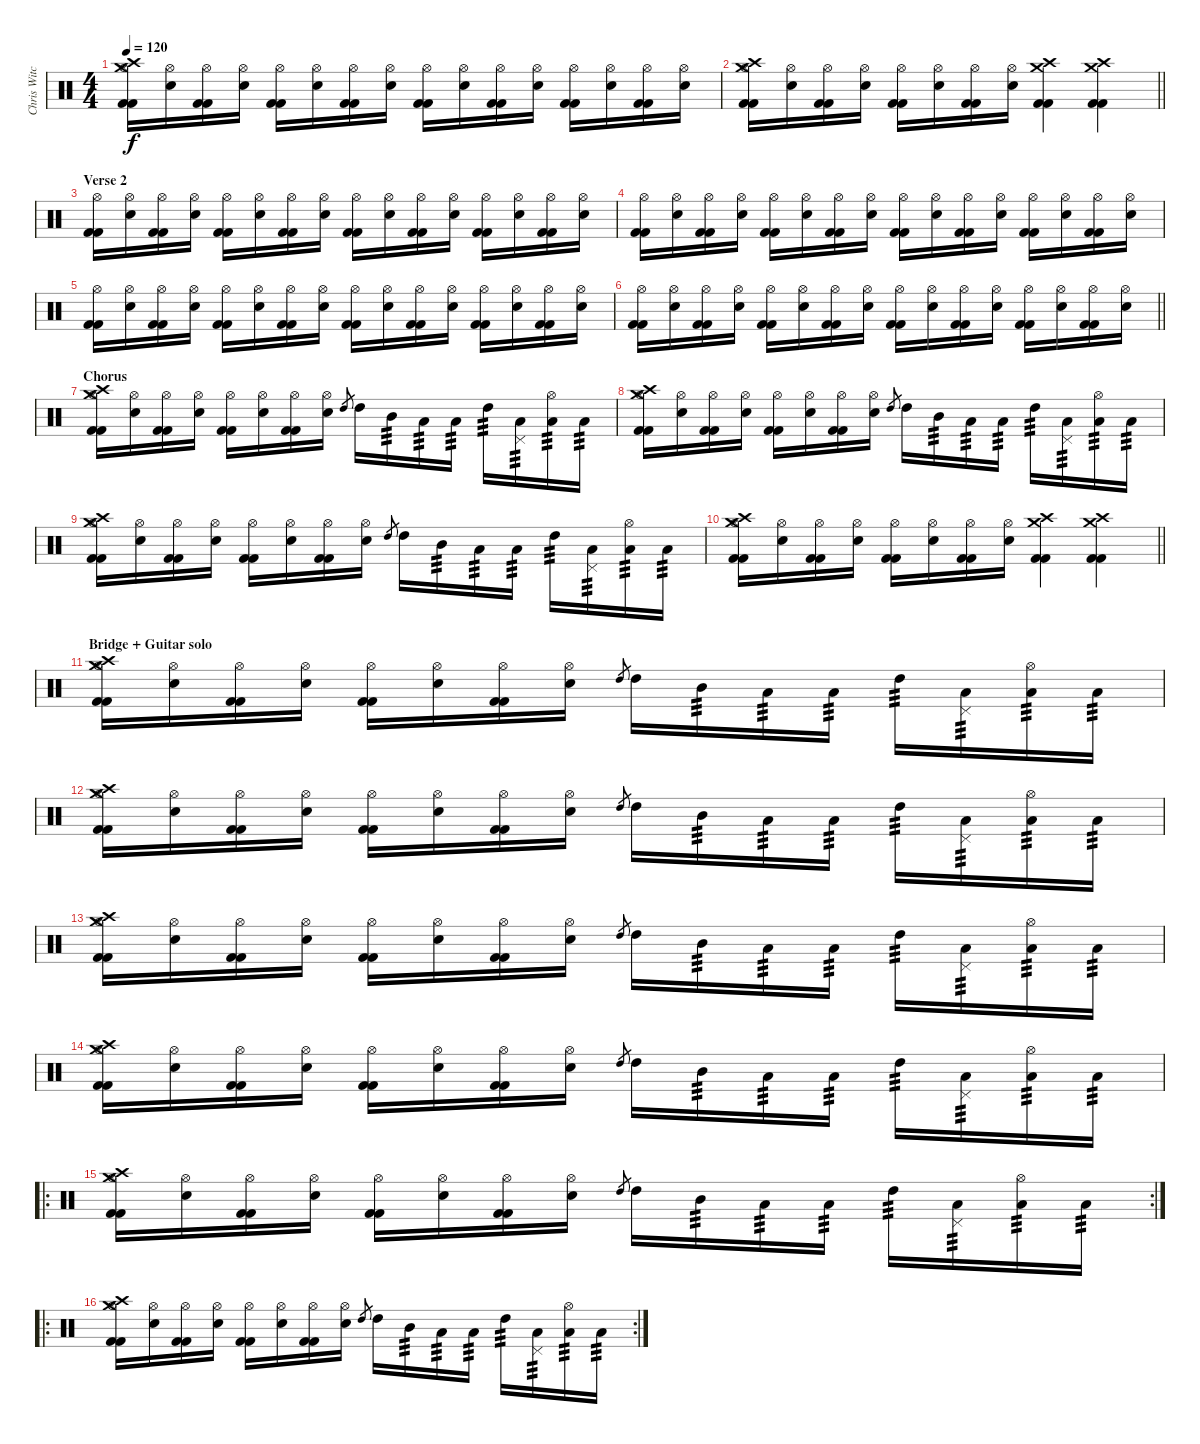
\track ("Chris Witchhunter (R.I.P.)" "Chris Witc") {instrument percussion}
\staff {score}
\articulation defaults
\ts (4 4)
\tempo 120
\clef neutral
\ks c
("Crash medium (hit)" "Crash high (hit)" "Hi-Hat (open)" "Kick (hit) 2" "Kick (hit) 2").16{dy f} ("Hi-Hat (open)" "Electric Snare (hit)").16 ("Hi-Hat (open)" "Kick (hit) 2" "Kick (hit) 2").16 ("Hi-Hat (open)" "Electric Snare (hit)").16 ("Hi-Hat (open)" "Kick (hit) 2" "Kick (hit) 2").16 ("Hi-Hat (open)" "Electric Snare (hit)").16 ("Hi-Hat (open)" "Kick (hit) 2" "Kick (hit) 2").16 ("Hi-Hat (open)" "Electric Snare (hit)").16 ("Hi-Hat (open)" "Kick (hit) 2" "Kick (hit) 2").16 ("Hi-Hat (open)" "Electric Snare (hit)").16 ("Hi-Hat (open)" "Kick (hit) 2" "Kick (hit) 2").16 ("Hi-Hat (open)" "Electric Snare (hit)").16 ("Hi-Hat (open)" "Kick (hit) 2" "Kick (hit) 2").16 ("Hi-Hat (open)" "Electric Snare (hit)").16 ("Hi-Hat (open)" "Kick (hit) 2" "Kick (hit) 2").16 ("Hi-Hat (open)" "Electric Snare (hit)").16 |
\barLineRight lightlight
("Crash medium (hit)" "Crash high (hit)" "Hi-Hat (open)" "Kick (hit) 2" "Kick (hit) 2").16 ("Hi-Hat (open)" "Electric Snare (hit)").16 ("Hi-Hat (open)" "Kick (hit) 2" "Kick (hit) 2").16 ("Hi-Hat (open)" "Electric Snare (hit)").16 ("Hi-Hat (open)" "Kick (hit) 2" "Kick (hit) 2").16 ("Hi-Hat (open)" "Electric Snare (hit)").16 ("Hi-Hat (open)" "Kick (hit) 2" "Kick (hit) 2").16 ("Hi-Hat (open)" "Electric Snare (hit)").16 ("Crash high (hit)" "Crash medium (hit)" "Kick (hit) 2" "Kick (hit) 2").4 ("Crash high (hit)" "Crash medium (hit)" "Kick (hit) 2" "Kick (hit) 2").4 |
\section ("" "Verse 2")
("Hi-Hat (open)" "Kick (hit) 2" "Kick (hit) 2").16 ("Hi-Hat (open)" "Electric Snare (hit)").16 ("Hi-Hat (open)" "Kick (hit) 2" "Kick (hit) 2").16 ("Hi-Hat (open)" "Electric Snare (hit)").16 ("Hi-Hat (open)" "Kick (hit) 2" "Kick (hit) 2").16 ("Hi-Hat (open)" "Electric Snare (hit)").16 ("Hi-Hat (open)" "Kick (hit) 2" "Kick (hit) 2").16 ("Hi-Hat (open)" "Electric Snare (hit)").16 ("Hi-Hat (open)" "Kick (hit) 2" "Kick (hit) 2").16 ("Hi-Hat (open)" "Electric Snare (hit)").16 ("Hi-Hat (open)" "Kick (hit) 2" "Kick (hit) 2").16 ("Hi-Hat (open)" "Electric Snare (hit)").16 ("Hi-Hat (open)" "Kick (hit) 2" "Kick (hit) 2").16 ("Hi-Hat (open)" "Electric Snare (hit)").16 ("Hi-Hat (open)" "Kick (hit) 2" "Kick (hit) 2").16 ("Hi-Hat (open)" "Electric Snare (hit)").16 |
("Hi-Hat (open)" "Kick (hit) 2" "Kick (hit) 2").16 ("Hi-Hat (open)" "Electric Snare (hit)").16 ("Hi-Hat (open)" "Kick (hit) 2" "Kick (hit) 2").16 ("Hi-Hat (open)" "Electric Snare (hit)").16 ("Hi-Hat (open)" "Kick (hit) 2" "Kick (hit) 2").16 ("Hi-Hat (open)" "Electric Snare (hit)").16 ("Hi-Hat (open)" "Kick (hit) 2" "Kick (hit) 2").16 ("Hi-Hat (open)" "Electric Snare (hit)").16 ("Hi-Hat (open)" "Kick (hit) 2" "Kick (hit) 2").16 ("Hi-Hat (open)" "Electric Snare (hit)").16 ("Hi-Hat (open)" "Kick (hit) 2" "Kick (hit) 2").16 ("Hi-Hat (open)" "Electric Snare (hit)").16 ("Hi-Hat (open)" "Kick (hit) 2" "Kick (hit) 2").16 ("Hi-Hat (open)" "Electric Snare (hit)").16 ("Hi-Hat (open)" "Kick (hit) 2" "Kick (hit) 2").16 ("Hi-Hat (open)" "Electric Snare (hit)").16 |
("Hi-Hat (open)" "Kick (hit) 2" "Kick (hit) 2").16 ("Hi-Hat (open)" "Electric Snare (hit)").16 ("Hi-Hat (open)" "Kick (hit) 2" "Kick (hit) 2").16 ("Hi-Hat (open)" "Electric Snare (hit)").16 ("Hi-Hat (open)" "Kick (hit) 2" "Kick (hit) 2").16 ("Hi-Hat (open)" "Electric Snare (hit)").16 ("Hi-Hat (open)" "Kick (hit) 2" "Kick (hit) 2").16 ("Hi-Hat (open)" "Electric Snare (hit)").16 ("Hi-Hat (open)" "Kick (hit) 2" "Kick (hit) 2").16 ("Hi-Hat (open)" "Electric Snare (hit)").16 ("Hi-Hat (open)" "Kick (hit) 2" "Kick (hit) 2").16 ("Hi-Hat (open)" "Electric Snare (hit)").16 ("Hi-Hat (open)" "Kick (hit) 2" "Kick (hit) 2").16 ("Hi-Hat (open)" "Electric Snare (hit)").16 ("Hi-Hat (open)" "Kick (hit) 2" "Kick (hit) 2").16 ("Hi-Hat (open)" "Electric Snare (hit)").16 |
\barLineRight lightlight
("Hi-Hat (open)" "Kick (hit) 2" "Kick (hit) 2").16 ("Hi-Hat (open)" "Electric Snare (hit)").16 ("Hi-Hat (open)" "Kick (hit) 2" "Kick (hit) 2").16 ("Hi-Hat (open)" "Electric Snare (hit)").16 ("Hi-Hat (open)" "Kick (hit) 2" "Kick (hit) 2").16 ("Hi-Hat (open)" "Electric Snare (hit)").16 ("Hi-Hat (open)" "Kick (hit) 2" "Kick (hit) 2").16 ("Hi-Hat (open)" "Electric Snare (hit)").16 ("Hi-Hat (open)" "Kick (hit) 2" "Kick (hit) 2").16 ("Hi-Hat (open)" "Electric Snare (hit)").16 ("Hi-Hat (open)" "Kick (hit) 2" "Kick (hit) 2").16 ("Hi-Hat (open)" "Electric Snare (hit)").16 ("Hi-Hat (open)" "Kick (hit) 2" "Kick (hit) 2").16 ("Hi-Hat (open)" "Electric Snare (hit)").16 ("Hi-Hat (open)" "Kick (hit) 2" "Kick (hit) 2").16 ("Hi-Hat (open)" "Electric Snare (hit)").16 |
\section ("" "Chorus")
("Crash medium (hit)" "Crash high (hit)" "Hi-Hat (open)" "Kick (hit) 2" "Kick (hit) 2").16 ("Hi-Hat (open)" "Electric Snare (hit)").16 ("Hi-Hat (open)" "Kick (hit) 2" "Kick (hit) 2").16 ("Hi-Hat (open)" "Electric Snare (hit)").16 ("Hi-Hat (open)" "Kick (hit) 2" "Kick (hit) 2").16 ("Hi-Hat (open)" "Electric Snare (hit)").16 ("Hi-Hat (open)" "Kick (hit) 2" "Kick (hit) 2").16 ("Hi-Hat (open)" "Electric Snare (hit)").16 "High Tom (hit)".8{gr} "High Tom (hit)".16 "Mid Tom (hit)".16{tp 3} "Low Tom (hit)".16{tp 3} "Low Floor Tom (hit)".16{tp 3} "High Tom (hit)".16{tp 3} ("Pedal Hi-Hat (hit)" "Low Tom (hit)").16{tp 3} ("Hi-Hat (open)" "Low Floor Tom (hit)").16{tp 3} "Low Tom (hit)".16{tp 3} |
("Crash medium (hit)" "Crash high (hit)" "Hi-Hat (open)" "Kick (hit) 2" "Kick (hit) 2").16 ("Hi-Hat (open)" "Electric Snare (hit)").16 ("Hi-Hat (open)" "Kick (hit) 2" "Kick (hit) 2").16 ("Hi-Hat (open)" "Electric Snare (hit)").16 ("Hi-Hat (open)" "Kick (hit) 2" "Kick (hit) 2").16 ("Hi-Hat (open)" "Electric Snare (hit)").16 ("Hi-Hat (open)" "Kick (hit) 2" "Kick (hit) 2").16 ("Hi-Hat (open)" "Electric Snare (hit)").16 "High Tom (hit)".8{gr} "High Tom (hit)".16 "Mid Tom (hit)".16{tp 3} "Low Tom (hit)".16{tp 3} "Low Floor Tom (hit)".16{tp 3} "High Tom (hit)".16{tp 3} ("Pedal Hi-Hat (hit)" "Low Tom (hit)").16{tp 3} ("Hi-Hat (open)" "Low Floor Tom (hit)").16{tp 3} "Low Tom (hit)".16{tp 3} |
("Crash medium (hit)" "Crash high (hit)" "Hi-Hat (open)" "Kick (hit) 2" "Kick (hit) 2").16 ("Hi-Hat (open)" "Electric Snare (hit)").16 ("Hi-Hat (open)" "Kick (hit) 2" "Kick (hit) 2").16 ("Hi-Hat (open)" "Electric Snare (hit)").16 ("Hi-Hat (open)" "Kick (hit) 2" "Kick (hit) 2").16 ("Hi-Hat (open)" "Electric Snare (hit)").16 ("Hi-Hat (open)" "Kick (hit) 2" "Kick (hit) 2").16 ("Hi-Hat (open)" "Electric Snare (hit)").16 "High Tom (hit)".8{gr} "High Tom (hit)".16 "Mid Tom (hit)".16{tp 3} "Low Tom (hit)".16{tp 3} "Low Floor Tom (hit)".16{tp 3} "High Tom (hit)".16{tp 3} ("Pedal Hi-Hat (hit)" "Low Tom (hit)").16{tp 3} ("Hi-Hat (open)" "Low Floor Tom (hit)").16{tp 3} "Low Tom (hit)".16{tp 3} |
\barLineRight lightlight
("Crash medium (hit)" "Crash high (hit)" "Hi-Hat (open)" "Kick (hit) 2" "Kick (hit) 2").16 ("Hi-Hat (open)" "Electric Snare (hit)").16 ("Hi-Hat (open)" "Kick (hit) 2" "Kick (hit) 2").16 ("Hi-Hat (open)" "Electric Snare (hit)").16 ("Hi-Hat (open)" "Kick (hit) 2" "Kick (hit) 2").16 ("Hi-Hat (open)" "Electric Snare (hit)").16 ("Hi-Hat (open)" "Kick (hit) 2" "Kick (hit) 2").16 ("Hi-Hat (open)" "Electric Snare (hit)").16 ("Crash high (hit)" "Crash medium (hit)" "Kick (hit) 2" "Kick (hit) 2").4 ("Crash high (hit)" "Crash medium (hit)" "Kick (hit) 2" "Kick (hit) 2").4 |
\section ("" "Bridge + Guitar solo")
("Crash medium (hit)" "Crash high (hit)" "Hi-Hat (open)" "Kick (hit) 2" "Kick (hit) 2").16 ("Hi-Hat (open)" "Electric Snare (hit)").16 ("Hi-Hat (open)" "Kick (hit) 2" "Kick (hit) 2").16 ("Hi-Hat (open)" "Electric Snare (hit)").16 ("Hi-Hat (open)" "Kick (hit) 2" "Kick (hit) 2").16 ("Hi-Hat (open)" "Electric Snare (hit)").16 ("Hi-Hat (open)" "Kick (hit) 2" "Kick (hit) 2").16 ("Hi-Hat (open)" "Electric Snare (hit)").16 "High Tom (hit)".8{gr} "High Tom (hit)".16 "Mid Tom (hit)".16{tp 3} "Low Tom (hit)".16{tp 3} "Low Floor Tom (hit)".16{tp 3} "High Tom (hit)".16{tp 3} ("Pedal Hi-Hat (hit)" "Low Tom (hit)").16{tp 3} ("Hi-Hat (open)" "Low Floor Tom (hit)").16{tp 3} "Low Tom (hit)".16{tp 3} |
("Crash medium (hit)" "Crash high (hit)" "Hi-Hat (open)" "Kick (hit) 2" "Kick (hit) 2").16 ("Hi-Hat (open)" "Electric Snare (hit)").16 ("Hi-Hat (open)" "Kick (hit) 2" "Kick (hit) 2").16 ("Hi-Hat (open)" "Electric Snare (hit)").16 ("Hi-Hat (open)" "Kick (hit) 2" "Kick (hit) 2").16 ("Hi-Hat (open)" "Electric Snare (hit)").16 ("Hi-Hat (open)" "Kick (hit) 2" "Kick (hit) 2").16 ("Hi-Hat (open)" "Electric Snare (hit)").16 "High Tom (hit)".8{gr} "High Tom (hit)".16 "Mid Tom (hit)".16{tp 3} "Low Tom (hit)".16{tp 3} "Low Floor Tom (hit)".16{tp 3} "High Tom (hit)".16{tp 3} ("Pedal Hi-Hat (hit)" "Low Tom (hit)").16{tp 3} ("Hi-Hat (open)" "Low Floor Tom (hit)").16{tp 3} "Low Tom (hit)".16{tp 3} |
("Crash medium (hit)" "Crash high (hit)" "Hi-Hat (open)" "Kick (hit) 2" "Kick (hit) 2").16 ("Hi-Hat (open)" "Electric Snare (hit)").16 ("Hi-Hat (open)" "Kick (hit) 2" "Kick (hit) 2").16 ("Hi-Hat (open)" "Electric Snare (hit)").16 ("Hi-Hat (open)" "Kick (hit) 2" "Kick (hit) 2").16 ("Hi-Hat (open)" "Electric Snare (hit)").16 ("Hi-Hat (open)" "Kick (hit) 2" "Kick (hit) 2").16 ("Hi-Hat (open)" "Electric Snare (hit)").16 "High Tom (hit)".8{gr} "High Tom (hit)".16 "Mid Tom (hit)".16{tp 3} "Low Tom (hit)".16{tp 3} "Low Floor Tom (hit)".16{tp 3} "High Tom (hit)".16{tp 3} ("Pedal Hi-Hat (hit)" "Low Tom (hit)").16{tp 3} ("Hi-Hat (open)" "Low Floor Tom (hit)").16{tp 3} "Low Tom (hit)".16{tp 3} |
("Crash medium (hit)" "Crash high (hit)" "Hi-Hat (open)" "Kick (hit) 2" "Kick (hit) 2").16 ("Hi-Hat (open)" "Electric Snare (hit)").16 ("Hi-Hat (open)" "Kick (hit) 2" "Kick (hit) 2").16 ("Hi-Hat (open)" "Electric Snare (hit)").16 ("Hi-Hat (open)" "Kick (hit) 2" "Kick (hit) 2").16 ("Hi-Hat (open)" "Electric Snare (hit)").16 ("Hi-Hat (open)" "Kick (hit) 2" "Kick (hit) 2").16 ("Hi-Hat (open)" "Electric Snare (hit)").16 "High Tom (hit)".8{gr} "High Tom (hit)".16 "Mid Tom (hit)".16{tp 3} "Low Tom (hit)".16{tp 3} "Low Floor Tom (hit)".16{tp 3} "High Tom (hit)".16{tp 3} ("Pedal Hi-Hat (hit)" "Low Tom (hit)").16{tp 3} ("Hi-Hat (open)" "Low Floor Tom (hit)").16{tp 3} "Low Tom (hit)".16{tp 3} |
\ro
\rc 2
("Crash medium (hit)" "Crash high (hit)" "Hi-Hat (open)" "Kick (hit) 2" "Kick (hit) 2").16 ("Hi-Hat (open)" "Electric Snare (hit)").16 ("Hi-Hat (open)" "Kick (hit) 2" "Kick (hit) 2").16 ("Hi-Hat (open)" "Electric Snare (hit)").16 ("Hi-Hat (open)" "Kick (hit) 2" "Kick (hit) 2").16 ("Hi-Hat (open)" "Electric Snare (hit)").16 ("Hi-Hat (open)" "Kick (hit) 2" "Kick (hit) 2").16 ("Hi-Hat (open)" "Electric Snare (hit)").16 "High Tom (hit)".8{gr} "High Tom (hit)".16 "Mid Tom (hit)".16{tp 3} "Low Tom (hit)".16{tp 3} "Low Floor Tom (hit)".16{tp 3} "High Tom (hit)".16{tp 3} ("Pedal Hi-Hat (hit)" "Low Tom (hit)").16{tp 3} ("Hi-Hat (open)" "Low Floor Tom (hit)").16{tp 3} "Low Tom (hit)".16{tp 3} |
\ro
\rc 2
("Crash medium (hit)" "Crash high (hit)" "Hi-Hat (open)" "Kick (hit) 2" "Kick (hit) 2").16 ("Hi-Hat (open)" "Electric Snare (hit)").16 ("Hi-Hat (open)" "Kick (hit) 2" "Kick (hit) 2").16 ("Hi-Hat (open)" "Electric Snare (hit)").16 ("Hi-Hat (open)" "Kick (hit) 2" "Kick (hit) 2").16 ("Hi-Hat (open)" "Electric Snare (hit)").16 ("Hi-Hat (open)" "Kick (hit) 2" "Kick (hit) 2").16 ("Hi-Hat (open)" "Electric Snare (hit)").16 "High Tom (hit)".8{gr} "High Tom (hit)".16 "Mid Tom (hit)".16{tp 3} "Low Tom (hit)".16{tp 3} "Low Floor Tom (hit)".16{tp 3} "High Tom (hit)".16{tp 3} ("Pedal Hi-Hat (hit)" "Low Tom (hit)").16{tp 3} ("Hi-Hat (open)" "Low Floor Tom (hit)").16{tp 3} "Low Tom (hit)".16{tp 3}
